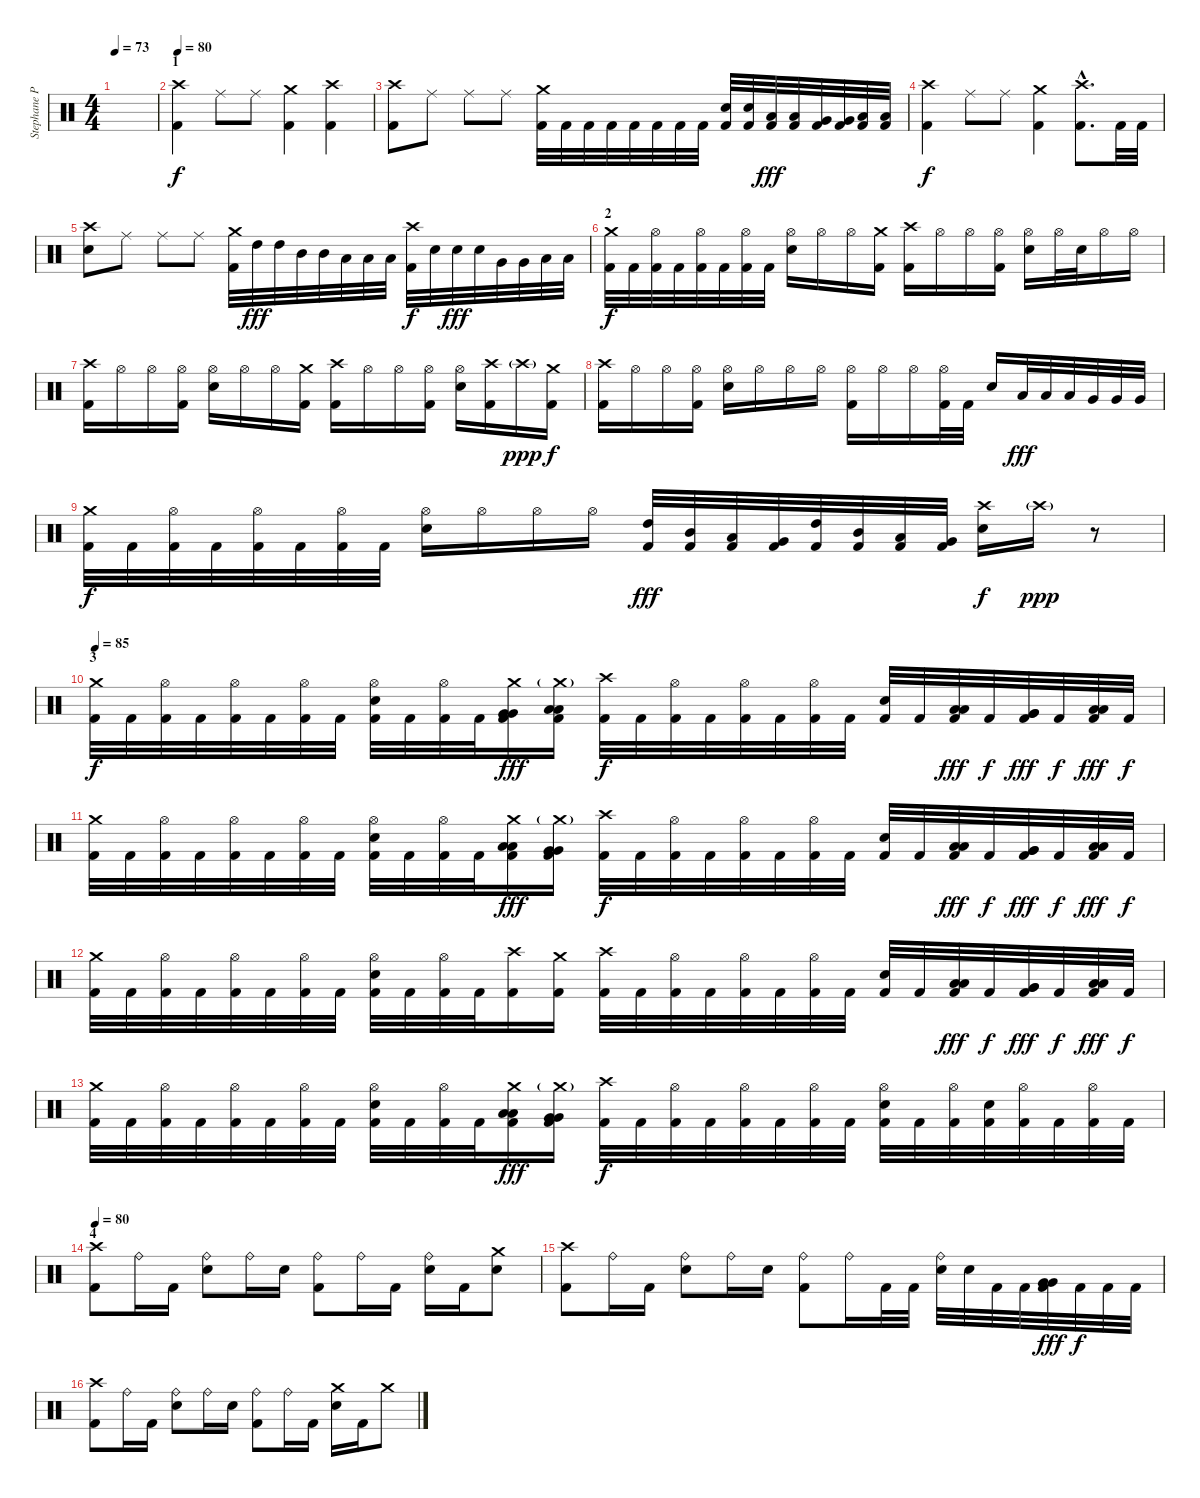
\track ("Stephane Provencher " "Stephane P") {instrument percussion}
\staff {score}
\articulation defaults
\ts (4 4)
\tempo 73
\clef neutral
\ks c
|
\section ("" "1")
\tempo 80
("Crash high (hit)" "Kick (hit) 2").4 "Ride (middle)".8 "Ride (middle)".8 ("Crash medium (hit)" "Kick (hit) 2").4 ("Crash high (hit)" "Kick (hit) 2").4 |
("Crash high (hit)" "Kick (hit) 2").8 "Ride (middle)".8 "Ride (middle)".8 "Ride (middle)".8 ("Crash medium (hit)" "Kick (hit) 2").32 "Kick (hit) 2".32 "Kick (hit) 2".32 "Kick (hit) 2".32 "Kick (hit) 2".32 "Kick (hit) 2".32 "Kick (hit) 2".32 "Kick (hit) 2".32 ("Electric Snare (hit)" "Kick (hit) 2").32 ("Electric Snare (hit)" "Kick (hit) 2").32 ("Low Tom (hit)" "Kick (hit) 2").32{dy fff} ("Low Tom (hit)" "Kick (hit) 2").32 ("Very Low Tom (hit)" "Kick (hit) 2").32 ("Very Low Tom (hit)" "Kick (hit) 2").32 ("Low Floor Tom (hit)" "Kick (hit) 2").32 ("Low Floor Tom (hit)" "Kick (hit) 2").32 |
("Crash high (hit)" "Kick (hit) 2").4{dy f} "Ride (middle)".8 "Ride (middle)".8 ("Crash medium (hit)" "Kick (hit) 2").4 ("Crash high (hit)"{hac} "Kick (hit) 2"{hac}).8{d} "Kick (hit) 2".32 "Kick (hit) 2".32 |
("Crash high (hit)" "Electric Snare (hit)").8 "Ride (middle)".8 "Ride (middle)".8 "Ride (middle)".8 ("Crash medium (hit)" "Kick (hit) 2").32 "High Tom (hit)".32{dy fff} "High Tom (hit)".32 "Mid Tom (hit)".32 "Mid Tom (hit)".32 "Low Tom (hit)".32 "Low Tom (hit)".32 "Low Tom (hit)".32 ("Crash high (hit)" "Kick (hit) 2").32{dy f} "Electric Snare (hit)".32 "Electric Snare (hit)".32{dy fff} "Electric Snare (hit)".32 "Very Low Tom (hit)".32 "Very Low Tom (hit)".32 "Low Floor Tom (hit)".32 "Low Floor Tom (hit)".32 |
\section ("" "2")
("Crash medium (hit)" "Kick (hit) 2").32{dy f} "Kick (hit) 2".32 ("Hi-Hat (open)" "Kick (hit) 2").32 "Kick (hit) 2".32 ("Hi-Hat (open)" "Kick (hit) 2").32 "Kick (hit) 2".32 ("Hi-Hat (open)" "Kick (hit) 2").32 "Kick (hit) 2".32 ("Hi-Hat (open)" "Electric Snare (hit)").16 "Hi-Hat (open)".16 "Hi-Hat (open)".16 ("Crash medium (hit)" "Kick (hit) 2").16 ("Crash high (hit)" "Kick (hit) 2").16 "Hi-Hat (open)".16 "Hi-Hat (open)".16 ("Hi-Hat (open)" "Kick (hit) 2").16 ("Hi-Hat (open)" "Electric Snare (hit)").16 "Hi-Hat (open)".32 "Electric Snare (hit)".32 "Hi-Hat (open)".16 "Hi-Hat (open)".16 |
("Crash high (hit)" "Kick (hit) 2").16 "Hi-Hat (open)".16 "Hi-Hat (open)".16 ("Hi-Hat (open)" "Kick (hit) 2").16 ("Hi-Hat (open)" "Electric Snare (hit)").16 "Hi-Hat (open)".16 "Hi-Hat (open)".16 ("Crash medium (hit)" "Kick (hit) 2").16 ("Crash high (hit)" "Kick (hit) 2").16 "Hi-Hat (open)".16 "Hi-Hat (open)".16 ("Hi-Hat (open)" "Kick (hit) 2").16 ("Hi-Hat (open)" "Electric Snare (hit)").16 ("Crash high (hit)" "Kick (hit) 2").16 "Crash high (hit)"{g}.16{dy ppp} ("Crash medium (hit)" "Kick (hit) 2").16{dy f} |
("Crash high (hit)" "Kick (hit) 2").16 "Hi-Hat (open)".16 "Hi-Hat (open)".16 ("Hi-Hat (open)" "Kick (hit) 2").16 ("Hi-Hat (open)" "Electric Snare (hit)").16 "Hi-Hat (open)".16 "Hi-Hat (open)".16 "Hi-Hat (open)".16 ("Hi-Hat (open)" "Kick (hit) 2").16 "Hi-Hat (open)".16 "Hi-Hat (open)".16 ("Hi-Hat (open)" "Kick (hit) 2").32 "Kick (hit) 2".32 "Electric Snare (hit)".16 "Low Tom (hit)".32{dy fff} "Low Tom (hit)".32 "Low Tom (hit)".32 "Very Low Tom (hit)".32 "Very Low Tom (hit)".32 "Very Low Tom (hit)".32 |
("Crash medium (hit)" "Kick (hit) 2").32{dy f} "Kick (hit) 2".32 ("Hi-Hat (open)" "Kick (hit) 2").32 "Kick (hit) 2".32 ("Hi-Hat (open)" "Kick (hit) 2").32 "Kick (hit) 2".32 ("Hi-Hat (open)" "Kick (hit) 2").32 "Kick (hit) 2".32 ("Hi-Hat (open)" "Electric Snare (hit)").16 "Hi-Hat (open)".16 "Hi-Hat (open)".16 "Hi-Hat (open)".16 ("High Tom (hit)" "Kick (hit) 2").32{dy fff} ("Mid Tom (hit)" "Kick (hit) 2").32 ("Low Tom (hit)" "Kick (hit) 2").32 ("Very Low Tom (hit)" "Kick (hit) 2").32 ("High Tom (hit)" "Kick (hit) 2").32 ("Mid Tom (hit)" "Kick (hit) 2").32 ("Low Tom (hit)" "Kick (hit) 2").32 ("Very Low Tom (hit)" "Kick (hit) 2").32 ("Crash high (hit)" "Electric Snare (hit)").16{dy f} "Crash high (hit)"{g}.16{dy ppp} r.8{volume 0} |
\section ("" "3")
\tempo 85
("Crash medium (hit)" "Kick (hit) 2").32{dy f volume 14} "Kick (hit) 2".32 ("Hi-Hat (open)" "Kick (hit) 2").32 "Kick (hit) 2".32 ("Hi-Hat (open)" "Kick (hit) 2").32 "Kick (hit) 2".32 ("Hi-Hat (open)" "Kick (hit) 2").32 "Kick (hit) 2".32 ("Hi-Hat (open)" "Electric Snare (hit)" "Kick (hit) 2").32 "Kick (hit) 2".32 ("Hi-Hat (open)" "Kick (hit) 2").32 "Kick (hit) 2".32 ("Crash medium (hit)" "Very Low Tom (hit)" "Very Low Tom (hit)" "Kick (hit) 2").16{dy fff} ("Crash medium (hit)"{g} "Low Floor Tom (hit)" "Low Floor Tom (hit)" "Kick (hit) 2").16 ("Crash high (hit)" "Kick (hit) 2").32{dy f} "Kick (hit) 2".32 ("Hi-Hat (open)" "Kick (hit) 2").32 "Kick (hit) 2".32 ("Hi-Hat (open)" "Kick (hit) 2").32 "Kick (hit) 2".32 ("Hi-Hat (open)" "Kick (hit) 2").32 "Kick (hit) 2".32 ("Electric Snare (hit)" "Kick (hit) 2").32 "Kick (hit) 2".32 ("Low Tom (hit)" "Low Tom (hit)" "Kick (hit) 2").32{dy fff} "Kick (hit) 2".32{dy f} ("Very Low Tom (hit)" "Very Low Tom (hit)" "Kick (hit) 2").32{dy fff} "Kick (hit) 2".32{dy f} ("Low Floor Tom (hit)" "Low Floor Tom (hit)" "Kick (hit) 2").32{dy fff} "Kick (hit) 2".32{dy f} |
("Crash medium (hit)" "Kick (hit) 2").32 "Kick (hit) 2".32 ("Hi-Hat (open)" "Kick (hit) 2").32 "Kick (hit) 2".32 ("Hi-Hat (open)" "Kick (hit) 2").32 "Kick (hit) 2".32 ("Hi-Hat (open)" "Kick (hit) 2").32 "Kick (hit) 2".32 ("Hi-Hat (open)" "Electric Snare (hit)" "Kick (hit) 2").32 "Kick (hit) 2".32 ("Hi-Hat (open)" "Kick (hit) 2").32 "Kick (hit) 2".32 ("Crash medium (hit)" "Low Tom (hit)" "Low Tom (hit)" "Kick (hit) 2").16{dy fff} ("Crash medium (hit)"{g} "Very Low Tom (hit)" "Very Low Tom (hit)" "Kick (hit) 2").16 ("Crash high (hit)" "Kick (hit) 2").32{dy f} "Kick (hit) 2".32 ("Hi-Hat (open)" "Kick (hit) 2").32 "Kick (hit) 2".32 ("Hi-Hat (open)" "Kick (hit) 2").32 "Kick (hit) 2".32 ("Hi-Hat (open)" "Kick (hit) 2").32 "Kick (hit) 2".32 ("Electric Snare (hit)" "Kick (hit) 2").32 "Kick (hit) 2".32 ("Low Tom (hit)" "Low Tom (hit)" "Kick (hit) 2").32{dy fff} "Kick (hit) 2".32{dy f} ("Very Low Tom (hit)" "Very Low Tom (hit)" "Kick (hit) 2").32{dy fff} "Kick (hit) 2".32{dy f} ("Low Floor Tom (hit)" "Low Floor Tom (hit)" "Kick (hit) 2").32{dy fff} "Kick (hit) 2".32{dy f} |
("Crash medium (hit)" "Kick (hit) 2").32 "Kick (hit) 2".32 ("Hi-Hat (open)" "Kick (hit) 2").32 "Kick (hit) 2".32 ("Hi-Hat (open)" "Kick (hit) 2").32 "Kick (hit) 2".32 ("Hi-Hat (open)" "Kick (hit) 2").32 "Kick (hit) 2".32 ("Hi-Hat (open)" "Electric Snare (hit)" "Kick (hit) 2").32 "Kick (hit) 2".32 ("Hi-Hat (open)" "Kick (hit) 2").32 "Kick (hit) 2".32 ("Crash high (hit)" "Kick (hit) 2").16 ("Crash medium (hit)" "Kick (hit) 2").16 ("Crash high (hit)" "Kick (hit) 2").32 "Kick (hit) 2".32 ("Hi-Hat (open)" "Kick (hit) 2").32 "Kick (hit) 2".32 ("Hi-Hat (open)" "Kick (hit) 2").32 "Kick (hit) 2".32 ("Hi-Hat (open)" "Kick (hit) 2").32 "Kick (hit) 2".32 ("Electric Snare (hit)" "Kick (hit) 2").32 "Kick (hit) 2".32 ("Low Tom (hit)" "Low Tom (hit)" "Kick (hit) 2").32{dy fff} "Kick (hit) 2".32{dy f} ("Very Low Tom (hit)" "Very Low Tom (hit)" "Kick (hit) 2").32{dy fff} "Kick (hit) 2".32{dy f} ("Low Floor Tom (hit)" "Low Floor Tom (hit)" "Kick (hit) 2").32{dy fff} "Kick (hit) 2".32{dy f} |
("Crash medium (hit)" "Kick (hit) 2").32 "Kick (hit) 2".32 ("Hi-Hat (open)" "Kick (hit) 2").32 "Kick (hit) 2".32 ("Hi-Hat (open)" "Kick (hit) 2").32 "Kick (hit) 2".32 ("Hi-Hat (open)" "Kick (hit) 2").32 "Kick (hit) 2".32 ("Hi-Hat (open)" "Electric Snare (hit)" "Kick (hit) 2").32 "Kick (hit) 2".32 ("Hi-Hat (open)" "Kick (hit) 2").32 "Kick (hit) 2".32 ("Crash medium (hit)" "Low Tom (hit)" "Low Tom (hit)" "Kick (hit) 2").16{dy fff} ("Crash medium (hit)"{g} "Very Low Tom (hit)" "Very Low Tom (hit)" "Kick (hit) 2").16 ("Crash high (hit)" "Kick (hit) 2").32{dy f} "Kick (hit) 2".32 ("Hi-Hat (open)" "Kick (hit) 2").32 "Kick (hit) 2".32 ("Hi-Hat (open)" "Kick (hit) 2").32 "Kick (hit) 2".32 ("Hi-Hat (open)" "Kick (hit) 2").32 "Kick (hit) 2".32 ("Hi-Hat (open)" "Electric Snare (hit)" "Kick (hit) 2").32 "Kick (hit) 2".32 ("Hi-Hat (open)" "Kick (hit) 2").32 ("Electric Snare (hit)" "Kick (hit) 2").32 ("Hi-Hat (open)" "Kick (hit) 2").32 "Kick (hit) 2".32 ("Hi-Hat (open)" "Kick (hit) 2").32 "Kick (hit) 2".32 |
\section ("" "4")
\tempo 80
("Crash high (hit)" "Kick (hit) 2").8 "Ride (bell)".16 "Kick (hit) 2".16 ("Ride (bell)" "Electric Snare (hit)").8 "Ride (bell)".16 "Electric Snare (hit)".16 ("Ride (bell)" "Kick (hit) 2").8 "Ride (bell)".16 "Kick (hit) 2".16 ("Ride (bell)" "Electric Snare (hit)").16 "Kick (hit) 2".16 ("Crash medium (hit)" "Electric Snare (hit)").8 |
("Crash high (hit)" "Kick (hit) 2").8 "Ride (bell)".16 "Kick (hit) 2".16 ("Ride (bell)" "Electric Snare (hit)").8 "Ride (bell)".16 "Electric Snare (hit)".16 ("Ride (bell)" "Kick (hit) 2").8 "Ride (bell)".16 "Kick (hit) 2".32 "Kick (hit) 2".32 ("Ride (bell)" "Electric Snare (hit)").32 "Electric Snare (hit)".32 "Kick (hit) 2".32 "Kick (hit) 2".32 ("Very Low Tom (hit)" "Very Low Tom (hit)" "Kick (hit) 2").32{dy fff} "Kick (hit) 2".32{dy f} "Kick (hit) 2".32 "Kick (hit) 2".32 |
("Crash high (hit)" "Kick (hit) 2").8 "Ride (bell)".16 "Kick (hit) 2".16 ("Ride (bell)" "Electric Snare (hit)").8 "Ride (bell)".16 "Electric Snare (hit)".16 ("Ride (bell)" "Kick (hit) 2").8 "Ride (bell)".16 "Kick (hit) 2".16 ("Crash medium (hit)" "Electric Snare (hit)").16 "Kick (hit) 2".16 "Crash medium (hit)".8
